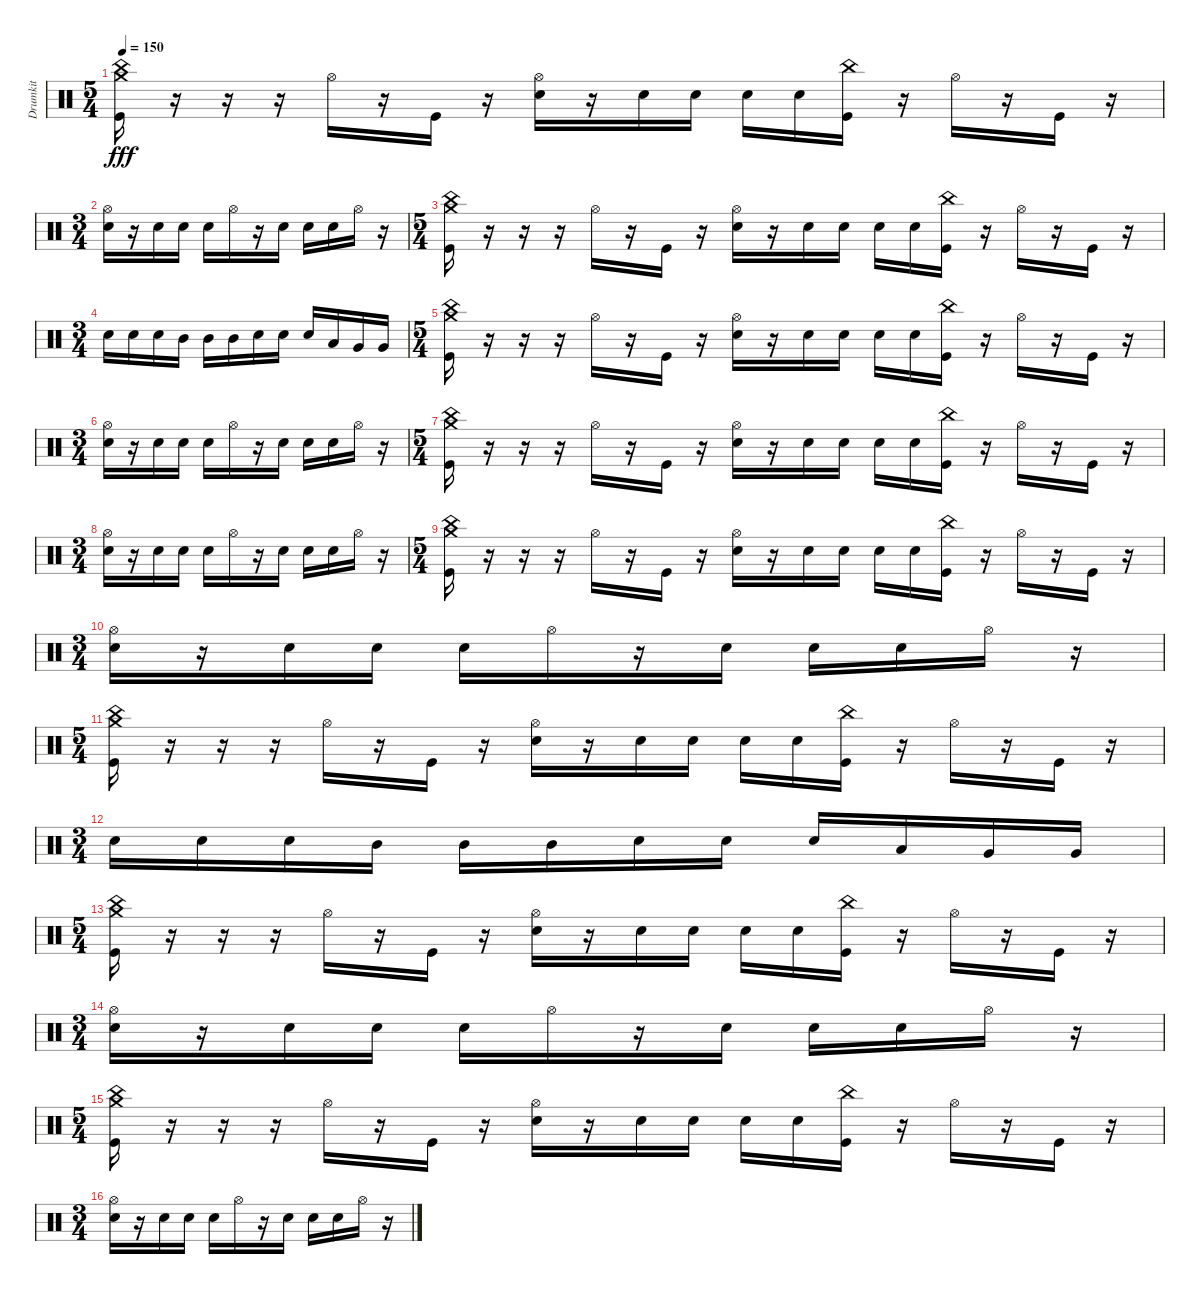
\track ("Drumkit" "Drumkit") {instrument percussion}
\staff {score}
\articulation defaults
\ts (5 4)
\tempo 150
\clef neutral
\ks c
("Kick (hit)" "Crash medium (hit)" "China (hit)").16{dy fff} r.16 r.16 r.16 "Hi-Hat (open)".16 r.16 "Kick (hit)".16 r.16 ("Hi-Hat (open)" "Snare (hit) 2").16 r.16 "Snare (hit) 2".16 "Snare (hit) 2".16 "Snare (hit) 2".16 "Snare (hit) 2".16 ("Kick (hit)" "China (hit)").16 r.16 "Hi-Hat (open)".16 r.16 "Kick (hit)".16 r.16 |
\ts (3 4)
("Hi-Hat (open)" "Snare (hit) 2").16 r.16 "Snare (hit) 2".16 "Snare (hit) 2".16 "Snare (hit) 2".16 "Hi-Hat (open)".16 r.16 "Snare (hit) 2".16 "Snare (hit) 2".16 "Snare (hit) 2".16 "Hi-Hat (open)".16 r.16 |
\ts (5 4)
("Kick (hit)" "Crash medium (hit)" "China (hit)").16 r.16 r.16 r.16 "Hi-Hat (open)".16 r.16 "Kick (hit)".16 r.16 ("Hi-Hat (open)" "Snare (hit) 2").16 r.16 "Snare (hit) 2".16 "Snare (hit) 2".16 "Snare (hit) 2".16 "Snare (hit) 2".16 ("Kick (hit)" "China (hit)").16 r.16 "Hi-Hat (open)".16 r.16 "Kick (hit)".16 r.16 |
\ts (3 4)
"Snare (hit) 2".16 "Snare (hit) 2".16 "Snare (hit) 2".16 "Mid Tom (hit)".16 "Mid Tom (hit)".16 "Mid Tom (hit)".16 "Snare (hit) 2".16 "Snare (hit) 2".16 "Snare (hit) 2".16 "Low Tom (hit)".16 "Very Low Tom (hit)".16 "Very Low Tom (hit)".16 |
\ts (5 4)
("Kick (hit)" "Crash medium (hit)" "China (hit)").16 r.16 r.16 r.16 "Hi-Hat (open)".16 r.16 "Kick (hit)".16 r.16 ("Hi-Hat (open)" "Snare (hit) 2").16 r.16 "Snare (hit) 2".16 "Snare (hit) 2".16 "Snare (hit) 2".16 "Snare (hit) 2".16 ("Kick (hit)" "China (hit)").16 r.16 "Hi-Hat (open)".16 r.16 "Kick (hit)".16 r.16 |
\ts (3 4)
("Hi-Hat (open)" "Snare (hit) 2").16 r.16 "Snare (hit) 2".16 "Snare (hit) 2".16 "Snare (hit) 2".16 "Hi-Hat (open)".16 r.16 "Snare (hit) 2".16 "Snare (hit) 2".16 "Snare (hit) 2".16 "Hi-Hat (open)".16 r.16 |
\ts (5 4)
("Kick (hit)" "Crash medium (hit)" "China (hit)").16 r.16 r.16 r.16 "Hi-Hat (open)".16 r.16 "Kick (hit)".16 r.16 ("Hi-Hat (open)" "Snare (hit) 2").16 r.16 "Snare (hit) 2".16 "Snare (hit) 2".16 "Snare (hit) 2".16 "Snare (hit) 2".16 ("Kick (hit)" "China (hit)").16 r.16 "Hi-Hat (open)".16 r.16 "Kick (hit)".16 r.16 |
\ts (3 4)
("Hi-Hat (open)" "Snare (hit) 2").16 r.16 "Snare (hit) 2".16 "Snare (hit) 2".16 "Snare (hit) 2".16 "Hi-Hat (open)".16 r.16 "Snare (hit) 2".16 "Snare (hit) 2".16 "Snare (hit) 2".16 "Hi-Hat (open)".16 r.16 |
\ts (5 4)
("Kick (hit)" "Crash medium (hit)" "China (hit)").16 r.16 r.16 r.16 "Hi-Hat (open)".16 r.16 "Kick (hit)".16 r.16 ("Hi-Hat (open)" "Snare (hit) 2").16 r.16 "Snare (hit) 2".16 "Snare (hit) 2".16 "Snare (hit) 2".16 "Snare (hit) 2".16 ("Kick (hit)" "China (hit)").16 r.16 "Hi-Hat (open)".16 r.16 "Kick (hit)".16 r.16 |
\ts (3 4)
("Hi-Hat (open)" "Snare (hit) 2").16 r.16 "Snare (hit) 2".16 "Snare (hit) 2".16 "Snare (hit) 2".16 "Hi-Hat (open)".16 r.16 "Snare (hit) 2".16 "Snare (hit) 2".16 "Snare (hit) 2".16 "Hi-Hat (open)".16 r.16 |
\ts (5 4)
("Kick (hit)" "Crash medium (hit)" "China (hit)").16 r.16 r.16 r.16 "Hi-Hat (open)".16 r.16 "Kick (hit)".16 r.16 ("Hi-Hat (open)" "Snare (hit) 2").16 r.16 "Snare (hit) 2".16 "Snare (hit) 2".16 "Snare (hit) 2".16 "Snare (hit) 2".16 ("Kick (hit)" "China (hit)").16 r.16 "Hi-Hat (open)".16 r.16 "Kick (hit)".16 r.16 |
\ts (3 4)
"Snare (hit) 2".16 "Snare (hit) 2".16 "Snare (hit) 2".16 "Mid Tom (hit)".16 "Mid Tom (hit)".16 "Mid Tom (hit)".16 "Snare (hit) 2".16 "Snare (hit) 2".16 "Snare (hit) 2".16 "Low Tom (hit)".16 "Very Low Tom (hit)".16 "Very Low Tom (hit)".16 |
\ts (5 4)
("Kick (hit)" "Crash medium (hit)" "China (hit)").16 r.16 r.16 r.16 "Hi-Hat (open)".16 r.16 "Kick (hit)".16 r.16 ("Hi-Hat (open)" "Snare (hit) 2").16 r.16 "Snare (hit) 2".16 "Snare (hit) 2".16 "Snare (hit) 2".16 "Snare (hit) 2".16 ("Kick (hit)" "China (hit)").16 r.16 "Hi-Hat (open)".16 r.16 "Kick (hit)".16 r.16 |
\ts (3 4)
("Hi-Hat (open)" "Snare (hit) 2").16 r.16 "Snare (hit) 2".16 "Snare (hit) 2".16 "Snare (hit) 2".16 "Hi-Hat (open)".16 r.16 "Snare (hit) 2".16 "Snare (hit) 2".16 "Snare (hit) 2".16 "Hi-Hat (open)".16 r.16 |
\ts (5 4)
("Kick (hit)" "Crash medium (hit)" "China (hit)").16 r.16 r.16 r.16 "Hi-Hat (open)".16 r.16 "Kick (hit)".16 r.16 ("Hi-Hat (open)" "Snare (hit) 2").16 r.16 "Snare (hit) 2".16 "Snare (hit) 2".16 "Snare (hit) 2".16 "Snare (hit) 2".16 ("Kick (hit)" "China (hit)").16 r.16 "Hi-Hat (open)".16 r.16 "Kick (hit)".16 r.16 |
\ts (3 4)
("Hi-Hat (open)" "Snare (hit) 2").16 r.16 "Snare (hit) 2".16 "Snare (hit) 2".16 "Snare (hit) 2".16 "Hi-Hat (open)".16 r.16 "Snare (hit) 2".16 "Snare (hit) 2".16 "Snare (hit) 2".16 "Hi-Hat (open)".16 r.16
